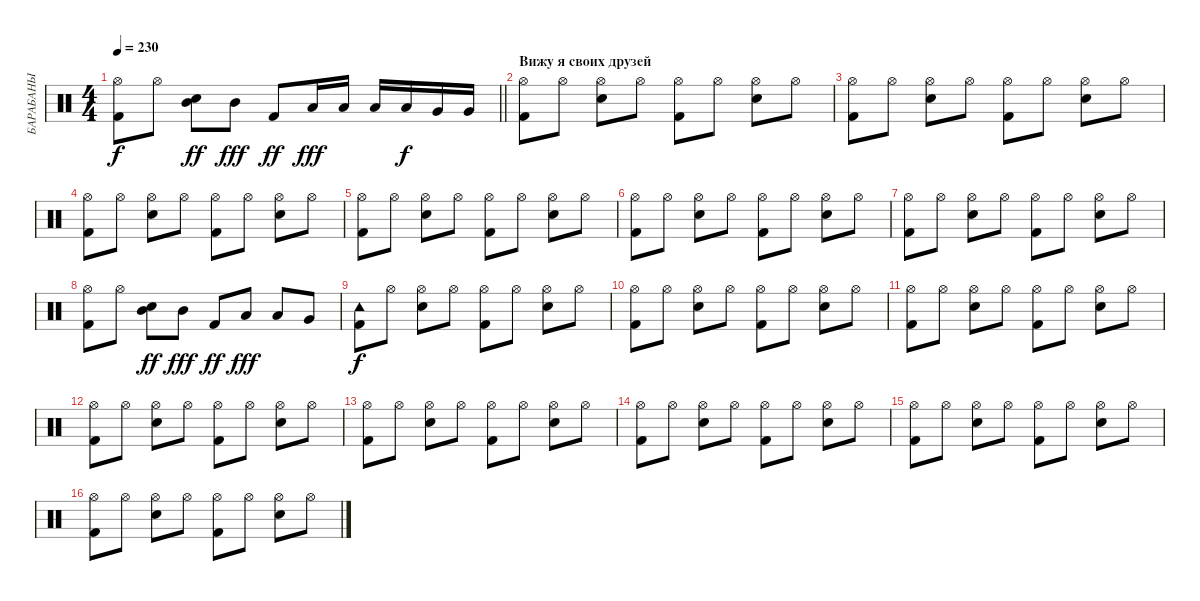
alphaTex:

\track ("БАРАБАНЫ" "БАРАБАНЫ") {instrument percussion}
\staff {score}
\articulation defaults
\ts (4 4)
\tempo 230
\clef neutral
\barLineRight lightlight
\ks c
("Hi-Hat (open)" "Kick (hit) 2").8{dy f} "Hi-Hat (open)".8 ("Mid Tom (hit)" "Electric Snare (hit)").8{dy ff} "Mid Tom (hit)".8{dy fff} "Kick (hit) 2".8{dy ff} "Low Tom (hit)".16{dy fff} "Low Tom (hit)".16 "Low Tom (hit)".16 "Low Tom (hit)".16{dy f} "Very Low Tom (hit)".16 "Very Low Tom (hit)".16 |
\section ("" "Вижу я своих друзей")
("Hi-Hat (open)" "Kick (hit) 2").8 "Hi-Hat (open)".8 ("Hi-Hat (open)" "Electric Snare (hit)").8 "Hi-Hat (open)".8 ("Hi-Hat (open)" "Kick (hit) 2").8 "Hi-Hat (open)".8 ("Hi-Hat (open)" "Electric Snare (hit)").8 "Hi-Hat (open)".8 |
("Hi-Hat (open)" "Kick (hit) 2").8 "Hi-Hat (open)".8 ("Hi-Hat (open)" "Electric Snare (hit)").8 "Hi-Hat (open)".8 ("Hi-Hat (open)" "Kick (hit) 2").8 "Hi-Hat (open)".8 ("Hi-Hat (open)" "Electric Snare (hit)").8 "Hi-Hat (open)".8 |
("Hi-Hat (open)" "Kick (hit) 2").8 "Hi-Hat (open)".8 ("Hi-Hat (open)" "Electric Snare (hit)").8 "Hi-Hat (open)".8 ("Hi-Hat (open)" "Kick (hit) 2").8 "Hi-Hat (open)".8 ("Hi-Hat (open)" "Electric Snare (hit)").8 "Hi-Hat (open)".8 |
("Hi-Hat (open)" "Kick (hit) 2").8 "Hi-Hat (open)".8 ("Hi-Hat (open)" "Electric Snare (hit)").8 "Hi-Hat (open)".8 ("Hi-Hat (open)" "Kick (hit) 2").8 "Hi-Hat (open)".8 ("Hi-Hat (open)" "Electric Snare (hit)").8 "Hi-Hat (open)".8 |
("Hi-Hat (open)" "Kick (hit) 2").8 "Hi-Hat (open)".8 ("Hi-Hat (open)" "Electric Snare (hit)").8 "Hi-Hat (open)".8 ("Hi-Hat (open)" "Kick (hit) 2").8 "Hi-Hat (open)".8 ("Hi-Hat (open)" "Electric Snare (hit)").8 "Hi-Hat (open)".8 |
("Hi-Hat (open)" "Kick (hit) 2").8 "Hi-Hat (open)".8 ("Hi-Hat (open)" "Electric Snare (hit)").8 "Hi-Hat (open)".8 ("Hi-Hat (open)" "Kick (hit) 2").8 "Hi-Hat (open)".8 ("Hi-Hat (open)" "Electric Snare (hit)").8 "Hi-Hat (open)".8 |
("Hi-Hat (open)" "Kick (hit) 2").8 "Hi-Hat (open)".8 ("Mid Tom (hit)" "Electric Snare (hit)").8{dy ff} "Mid Tom (hit)".8{dy fff} "Kick (hit) 2".8{dy ff} "Low Tom (hit)".8{dy fff} "Low Tom (hit)".8 "Very Low Tom (hit)".8 |
("Tambourine (hit)" "Kick (hit) 2").8{dy f} "Hi-Hat (open)".8 ("Hi-Hat (open)" "Electric Snare (hit)").8 "Hi-Hat (open)".8 ("Hi-Hat (open)" "Kick (hit) 2").8 "Hi-Hat (open)".8 ("Hi-Hat (open)" "Electric Snare (hit)").8 "Hi-Hat (open)".8 |
("Hi-Hat (open)" "Kick (hit) 2").8 "Hi-Hat (open)".8 ("Hi-Hat (open)" "Electric Snare (hit)").8 "Hi-Hat (open)".8 ("Hi-Hat (open)" "Kick (hit) 2").8 "Hi-Hat (open)".8 ("Hi-Hat (open)" "Electric Snare (hit)").8 "Hi-Hat (open)".8 |
("Hi-Hat (open)" "Kick (hit) 2").8 "Hi-Hat (open)".8 ("Hi-Hat (open)" "Electric Snare (hit)").8 "Hi-Hat (open)".8 ("Hi-Hat (open)" "Kick (hit) 2").8 "Hi-Hat (open)".8 ("Hi-Hat (open)" "Electric Snare (hit)").8 "Hi-Hat (open)".8 |
("Hi-Hat (open)" "Kick (hit) 2").8 "Hi-Hat (open)".8 ("Hi-Hat (open)" "Electric Snare (hit)").8 "Hi-Hat (open)".8 ("Hi-Hat (open)" "Kick (hit) 2").8 "Hi-Hat (open)".8 ("Hi-Hat (open)" "Electric Snare (hit)").8 "Hi-Hat (open)".8 |
("Hi-Hat (open)" "Kick (hit) 2").8 "Hi-Hat (open)".8 ("Hi-Hat (open)" "Electric Snare (hit)").8 "Hi-Hat (open)".8 ("Hi-Hat (open)" "Kick (hit) 2").8 "Hi-Hat (open)".8 ("Hi-Hat (open)" "Electric Snare (hit)").8 "Hi-Hat (open)".8 |
("Hi-Hat (open)" "Kick (hit) 2").8 "Hi-Hat (open)".8 ("Hi-Hat (open)" "Electric Snare (hit)").8 "Hi-Hat (open)".8 ("Hi-Hat (open)" "Kick (hit) 2").8 "Hi-Hat (open)".8 ("Hi-Hat (open)" "Electric Snare (hit)").8 "Hi-Hat (open)".8 |
("Hi-Hat (open)" "Kick (hit) 2").8 "Hi-Hat (open)".8 ("Hi-Hat (open)" "Electric Snare (hit)").8 "Hi-Hat (open)".8 ("Hi-Hat (open)" "Kick (hit) 2").8 "Hi-Hat (open)".8 ("Hi-Hat (open)" "Electric Snare (hit)").8 "Hi-Hat (open)".8 |
("Hi-Hat (open)" "Kick (hit) 2").8 "Hi-Hat (open)".8 ("Hi-Hat (open)" "Electric Snare (hit)").8 "Hi-Hat (open)".8 ("Hi-Hat (open)" "Kick (hit) 2").8 "Hi-Hat (open)".8 ("Hi-Hat (open)" "Electric Snare (hit)").8 "Hi-Hat (open)".8
